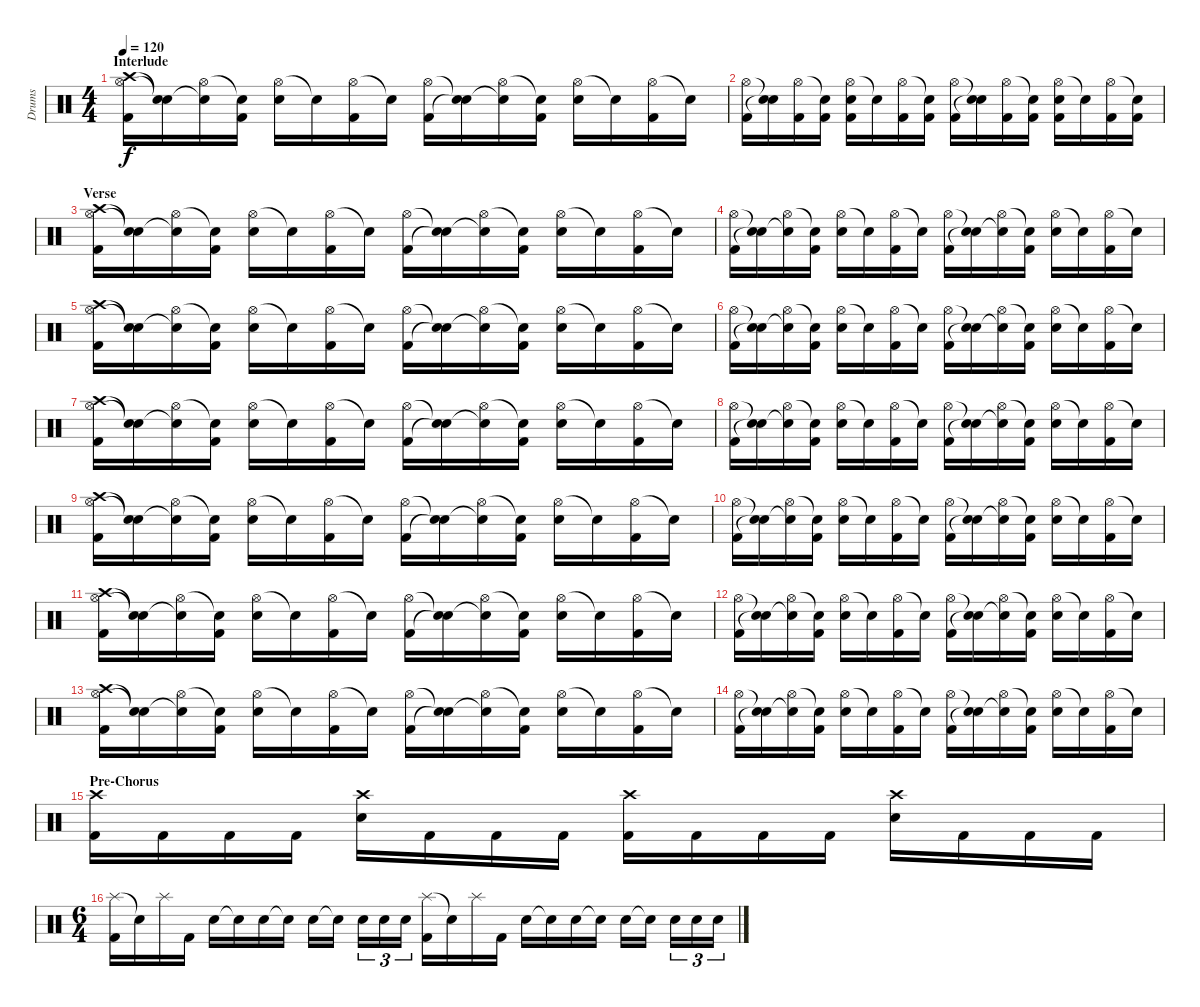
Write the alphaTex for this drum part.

\track ("Drums" "Drums") {instrument percussion}
\staff {score}
\articulation defaults
\ts (4 4)
\section ("" "Interlude")
\tempo 120
\clef neutral
\ks c
("Crash high (hit)" "Hi-Hat (open)" "Kick (hit) 2").16{dy f} ("Snare (hit)"{t} "Snare (hit)"{t}).16 ("Hi-Hat (open)" "Snare (hit)"{t}).16 ("Snare (hit)"{t} "Kick (hit) 2").16 ("Hi-Hat (open)" "Electric Snare (hit)").16 "Snare (hit)"{t}.16 ("Hi-Hat (open)" "Kick (hit) 2").16 "Snare (hit)"{t}.16 ("Hi-Hat (open)" "Kick (hit) 2").16 ("Snare (hit)"{t} "Snare (hit)"{t}).16 ("Hi-Hat (open)" "Snare (hit)"{t}).16 ("Snare (hit)"{t} "Kick (hit) 2").16 ("Hi-Hat (open)" "Electric Snare (hit)").16 "Snare (hit)"{t}.16 ("Hi-Hat (open)" "Kick (hit) 2").16 "Snare (hit)"{t}.16 |
("Hi-Hat (open)" "Kick (hit) 2").16 ("Snare (hit)"{t} "Snare (hit)"{t}).16 ("Hi-Hat (open)" "Kick (hit) 2").16 ("Snare (hit)"{t} "Kick (hit) 2").16 ("Hi-Hat (open)" "Electric Snare (hit)" "Kick (hit) 2").16 "Snare (hit)"{t}.16 ("Hi-Hat (open)" "Kick (hit) 2").16 ("Snare (hit)"{t} "Kick (hit) 2").16 ("Hi-Hat (open)" "Kick (hit) 2").16 ("Snare (hit)"{t} "Snare (hit)"{t}).16 ("Hi-Hat (open)" "Kick (hit) 2").16 ("Snare (hit)"{t} "Kick (hit) 2").16 ("Hi-Hat (open)" "Electric Snare (hit)" "Kick (hit) 2").16 "Snare (hit)"{t}.16 ("Hi-Hat (open)" "Kick (hit) 2").16 ("Snare (hit)"{t} "Kick (hit) 2").16 |
\section ("" "Verse")
("Crash high (hit)" "Hi-Hat (open)" "Kick (hit) 2").16 ("Snare (hit)"{t} "Snare (hit)"{t}).16 ("Hi-Hat (open)" "Snare (hit)"{t}).16 ("Snare (hit)"{t} "Kick (hit) 2").16 ("Hi-Hat (open)" "Electric Snare (hit)").16 "Snare (hit)"{t}.16 ("Hi-Hat (open)" "Kick (hit) 2").16 "Snare (hit)"{t}.16 ("Hi-Hat (open)" "Kick (hit) 2").16 ("Snare (hit)"{t} "Snare (hit)"{t}).16 ("Hi-Hat (open)" "Snare (hit)"{t}).16 ("Snare (hit)"{t} "Kick (hit) 2").16 ("Hi-Hat (open)" "Electric Snare (hit)").16 "Snare (hit)"{t}.16 ("Hi-Hat (open)" "Kick (hit) 2").16 "Snare (hit)"{t}.16 |
("Hi-Hat (open)" "Kick (hit) 2").16 ("Snare (hit)"{t} "Snare (hit)"{t}).16 ("Hi-Hat (open)" "Snare (hit)"{t}).16 ("Snare (hit)"{t} "Kick (hit) 2").16 ("Hi-Hat (open)" "Electric Snare (hit)").16 "Snare (hit)"{t}.16 ("Hi-Hat (open)" "Kick (hit) 2").16 "Snare (hit)"{t}.16 ("Hi-Hat (open)" "Kick (hit) 2").16 ("Snare (hit)"{t} "Snare (hit)"{t}).16 ("Hi-Hat (open)" "Snare (hit)"{t}).16 ("Snare (hit)"{t} "Kick (hit) 2").16 ("Hi-Hat (open)" "Electric Snare (hit)").16 "Snare (hit)"{t}.16 ("Hi-Hat (open)" "Kick (hit) 2").16 "Snare (hit)"{t}.16 |
("Crash high (hit)" "Hi-Hat (open)" "Kick (hit) 2").16 ("Snare (hit)"{t} "Snare (hit)"{t}).16 ("Hi-Hat (open)" "Snare (hit)"{t}).16 ("Snare (hit)"{t} "Kick (hit) 2").16 ("Hi-Hat (open)" "Electric Snare (hit)").16 "Snare (hit)"{t}.16 ("Hi-Hat (open)" "Kick (hit) 2").16 "Snare (hit)"{t}.16 ("Hi-Hat (open)" "Kick (hit) 2").16 ("Snare (hit)"{t} "Snare (hit)"{t}).16 ("Hi-Hat (open)" "Snare (hit)"{t}).16 ("Snare (hit)"{t} "Kick (hit) 2").16 ("Hi-Hat (open)" "Electric Snare (hit)").16 "Snare (hit)"{t}.16 ("Hi-Hat (open)" "Kick (hit) 2").16 "Snare (hit)"{t}.16 |
("Hi-Hat (open)" "Kick (hit) 2").16 ("Snare (hit)"{t} "Snare (hit)"{t}).16 ("Hi-Hat (open)" "Snare (hit)"{t}).16 ("Snare (hit)"{t} "Kick (hit) 2").16 ("Hi-Hat (open)" "Electric Snare (hit)").16 "Snare (hit)"{t}.16 ("Hi-Hat (open)" "Kick (hit) 2").16 "Snare (hit)"{t}.16 ("Hi-Hat (open)" "Kick (hit) 2").16 ("Snare (hit)"{t} "Snare (hit)"{t}).16 ("Hi-Hat (open)" "Snare (hit)"{t}).16 ("Snare (hit)"{t} "Kick (hit) 2").16 ("Hi-Hat (open)" "Electric Snare (hit)").16 "Snare (hit)"{t}.16 ("Hi-Hat (open)" "Kick (hit) 2").16 "Snare (hit)"{t}.16 |
("Crash high (hit)" "Hi-Hat (open)" "Kick (hit) 2").16 ("Snare (hit)"{t} "Snare (hit)"{t}).16 ("Hi-Hat (open)" "Snare (hit)"{t}).16 ("Snare (hit)"{t} "Kick (hit) 2").16 ("Hi-Hat (open)" "Electric Snare (hit)").16 "Snare (hit)"{t}.16 ("Hi-Hat (open)" "Kick (hit) 2").16 "Snare (hit)"{t}.16 ("Hi-Hat (open)" "Kick (hit) 2").16 ("Snare (hit)"{t} "Snare (hit)"{t}).16 ("Hi-Hat (open)" "Snare (hit)"{t}).16 ("Snare (hit)"{t} "Kick (hit) 2").16 ("Hi-Hat (open)" "Electric Snare (hit)").16 "Snare (hit)"{t}.16 ("Hi-Hat (open)" "Kick (hit) 2").16 "Snare (hit)"{t}.16 |
("Hi-Hat (open)" "Kick (hit) 2").16 ("Snare (hit)"{t} "Snare (hit)"{t}).16 ("Hi-Hat (open)" "Snare (hit)"{t}).16 ("Snare (hit)"{t} "Kick (hit) 2").16 ("Hi-Hat (open)" "Electric Snare (hit)").16 "Snare (hit)"{t}.16 ("Hi-Hat (open)" "Kick (hit) 2").16 "Snare (hit)"{t}.16 ("Hi-Hat (open)" "Kick (hit) 2").16 ("Snare (hit)"{t} "Snare (hit)"{t}).16 ("Hi-Hat (open)" "Snare (hit)"{t}).16 ("Snare (hit)"{t} "Kick (hit) 2").16 ("Hi-Hat (open)" "Electric Snare (hit)").16 "Snare (hit)"{t}.16 ("Hi-Hat (open)" "Kick (hit) 2").16 "Snare (hit)"{t}.16 |
("Crash high (hit)" "Hi-Hat (open)" "Kick (hit) 2").16 ("Snare (hit)"{t} "Snare (hit)"{t}).16 ("Hi-Hat (open)" "Snare (hit)"{t}).16 ("Snare (hit)"{t} "Kick (hit) 2").16 ("Hi-Hat (open)" "Electric Snare (hit)").16 "Snare (hit)"{t}.16 ("Hi-Hat (open)" "Kick (hit) 2").16 "Snare (hit)"{t}.16 ("Hi-Hat (open)" "Kick (hit) 2").16 ("Snare (hit)"{t} "Snare (hit)"{t}).16 ("Hi-Hat (open)" "Snare (hit)"{t}).16 ("Snare (hit)"{t} "Kick (hit) 2").16 ("Hi-Hat (open)" "Electric Snare (hit)").16 "Snare (hit)"{t}.16 ("Hi-Hat (open)" "Kick (hit) 2").16 "Snare (hit)"{t}.16 |
("Hi-Hat (open)" "Kick (hit) 2").16 ("Snare (hit)"{t} "Snare (hit)"{t}).16 ("Hi-Hat (open)" "Snare (hit)"{t}).16 ("Snare (hit)"{t} "Kick (hit) 2").16 ("Hi-Hat (open)" "Electric Snare (hit)").16 "Snare (hit)"{t}.16 ("Hi-Hat (open)" "Kick (hit) 2").16 "Snare (hit)"{t}.16 ("Hi-Hat (open)" "Kick (hit) 2").16 ("Snare (hit)"{t} "Snare (hit)"{t}).16 ("Hi-Hat (open)" "Snare (hit)"{t}).16 ("Snare (hit)"{t} "Kick (hit) 2").16 ("Hi-Hat (open)" "Electric Snare (hit)").16 "Snare (hit)"{t}.16 ("Hi-Hat (open)" "Kick (hit) 2").16 "Snare (hit)"{t}.16 |
("Crash high (hit)" "Hi-Hat (open)" "Kick (hit) 2").16 ("Snare (hit)"{t} "Snare (hit)"{t}).16 ("Hi-Hat (open)" "Snare (hit)"{t}).16 ("Snare (hit)"{t} "Kick (hit) 2").16 ("Hi-Hat (open)" "Electric Snare (hit)").16 "Snare (hit)"{t}.16 ("Hi-Hat (open)" "Kick (hit) 2").16 "Snare (hit)"{t}.16 ("Hi-Hat (open)" "Kick (hit) 2").16 ("Snare (hit)"{t} "Snare (hit)"{t}).16 ("Hi-Hat (open)" "Snare (hit)"{t}).16 ("Snare (hit)"{t} "Kick (hit) 2").16 ("Hi-Hat (open)" "Electric Snare (hit)").16 "Snare (hit)"{t}.16 ("Hi-Hat (open)" "Kick (hit) 2").16 "Snare (hit)"{t}.16 |
("Hi-Hat (open)" "Kick (hit) 2").16 ("Snare (hit)"{t} "Snare (hit)"{t}).16 ("Hi-Hat (open)" "Snare (hit)"{t}).16 ("Snare (hit)"{t} "Kick (hit) 2").16 ("Hi-Hat (open)" "Electric Snare (hit)").16 "Snare (hit)"{t}.16 ("Hi-Hat (open)" "Kick (hit) 2").16 "Snare (hit)"{t}.16 ("Hi-Hat (open)" "Kick (hit) 2").16 ("Snare (hit)"{t} "Snare (hit)"{t}).16 ("Hi-Hat (open)" "Snare (hit)"{t}).16 ("Snare (hit)"{t} "Kick (hit) 2").16 ("Hi-Hat (open)" "Electric Snare (hit)").16 "Snare (hit)"{t}.16 ("Hi-Hat (open)" "Kick (hit) 2").16 "Snare (hit)"{t}.16 |
("Crash high (hit)" "Hi-Hat (open)" "Kick (hit) 2").16 ("Snare (hit)"{t} "Snare (hit)"{t}).16 ("Hi-Hat (open)" "Snare (hit)"{t}).16 ("Snare (hit)"{t} "Kick (hit) 2").16 ("Hi-Hat (open)" "Electric Snare (hit)").16 "Snare (hit)"{t}.16 ("Hi-Hat (open)" "Kick (hit) 2").16 "Snare (hit)"{t}.16 ("Hi-Hat (open)" "Kick (hit) 2").16 ("Snare (hit)"{t} "Snare (hit)"{t}).16 ("Hi-Hat (open)" "Snare (hit)"{t}).16 ("Snare (hit)"{t} "Kick (hit) 2").16 ("Hi-Hat (open)" "Electric Snare (hit)").16 "Snare (hit)"{t}.16 ("Hi-Hat (open)" "Kick (hit) 2").16 "Snare (hit)"{t}.16 |
("Hi-Hat (open)" "Kick (hit) 2").16 ("Snare (hit)"{t} "Snare (hit)"{t}).16 ("Hi-Hat (open)" "Snare (hit)"{t}).16 ("Snare (hit)"{t} "Kick (hit) 2").16 ("Hi-Hat (open)" "Electric Snare (hit)").16 "Snare (hit)"{t}.16 ("Hi-Hat (open)" "Kick (hit) 2").16 "Snare (hit)"{t}.16 ("Hi-Hat (open)" "Kick (hit) 2").16 ("Snare (hit)"{t} "Snare (hit)"{t}).16 ("Hi-Hat (open)" "Snare (hit)"{t}).16 ("Snare (hit)"{t} "Kick (hit) 2").16 ("Hi-Hat (open)" "Electric Snare (hit)").16 "Snare (hit)"{t}.16 ("Hi-Hat (open)" "Kick (hit) 2").16 "Snare (hit)"{t}.16 |
\section ("" "Pre-Chorus")
("Crash high (hit)" "Kick (hit) 2").16 "Kick (hit) 2".16 "Kick (hit) 2".16 "Kick (hit) 2".16 ("Crash high (hit)" "Electric Snare (hit)").16 "Kick (hit) 2".16 "Kick (hit) 2".16 "Kick (hit) 2".16 ("Crash high (hit)" "Kick (hit) 2").16 "Kick (hit) 2".16 "Kick (hit) 2".16 "Kick (hit) 2".16 ("Crash high (hit)" "Electric Snare (hit)").16 "Kick (hit) 2".16 "Kick (hit) 2".16 "Kick (hit) 2".16 |
\ts (6 4)
("Splash (hit)" "Kick (hit) 2").16 "Snare (hit)"{t}.16 "Splash (hit)".16 "Kick (hit) 2".16 "Electric Snare (hit)".16 "Snare (hit)"{t}.16 "Electric Snare (hit)".16 "Snare (hit)"{t}.16 "Electric Snare (hit)".16 "Snare (hit)"{t}.16 "Electric Snare (hit)".16{tu (3 2)} "Electric Snare (hit)".16{tu (3 2)} "Electric Snare (hit)".16{tu (3 2)} ("Splash (hit)" "Kick (hit) 2").16 "Snare (hit)"{t}.16 "Splash (hit)".16 "Kick (hit) 2".16 "Electric Snare (hit)".16 "Snare (hit)"{t}.16 "Electric Snare (hit)".16 "Snare (hit)"{t}.16 "Electric Snare (hit)".16 "Snare (hit)"{t}.16 "Electric Snare (hit)".16{tu (3 2)} "Electric Snare (hit)".16{tu (3 2)} "Electric Snare (hit)".16{tu (3 2)}
